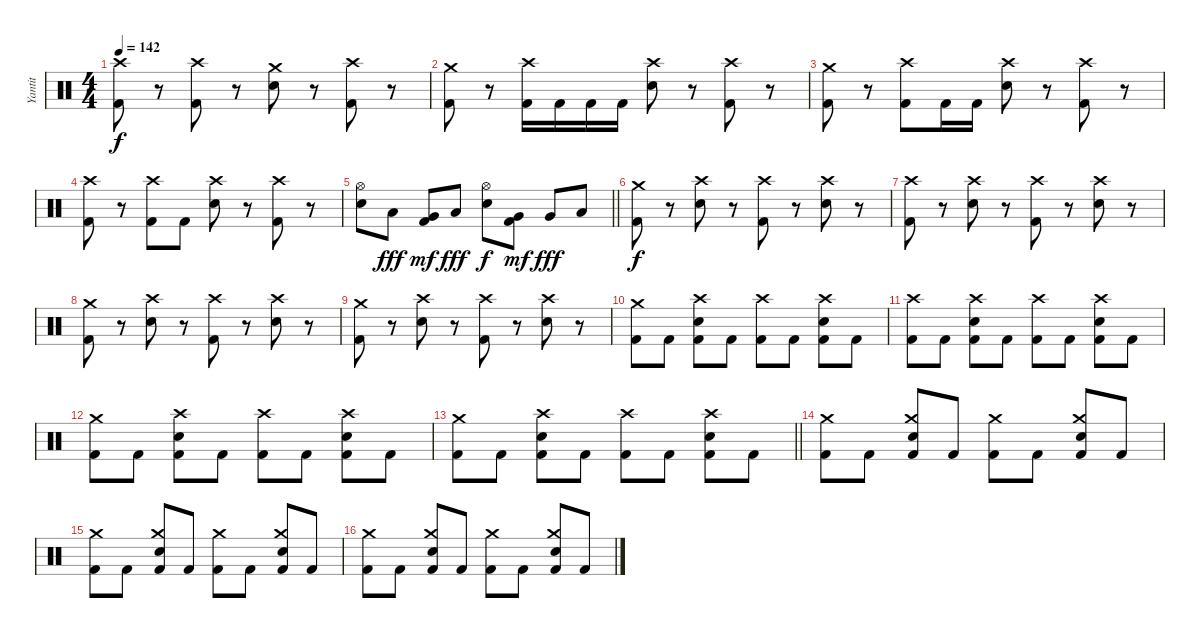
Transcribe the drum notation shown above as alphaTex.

\track ("Yantit" "Yantit") {instrument percussion}
\staff {score}
\articulation defaults
\ts (4 4)
\tempo 142
\clef neutral
\ks c
("Crash high (hit)" "Kick (hit) 2").8{dy f} r.8 ("Crash high (hit)" "Kick (hit) 2").8 r.8 ("Crash medium (hit)" "Electric Snare (hit)").8 r.8 ("Crash high (hit)" "Kick (hit) 2").8 r.8 |
("Crash medium (hit)" "Kick (hit) 2").8 r.8 ("Crash high (hit)" "Kick (hit) 2").16 "Kick (hit) 2".16 "Kick (hit) 2".16 "Kick (hit) 2".16 ("Crash high (hit)" "Electric Snare (hit)").8 r.8 ("Crash high (hit)" "Kick (hit) 2").8 r.8 |
("Crash medium (hit)" "Kick (hit) 2").8 r.8 ("Crash high (hit)" "Kick (hit) 2").8 "Kick (hit) 2".16 "Kick (hit) 2".16 ("Crash high (hit)" "Electric Snare (hit)").8 r.8 ("Crash high (hit)" "Kick (hit) 2").8 r.8 |
("Crash high (hit)" "Kick (hit) 2").8 r.8 ("Crash high (hit)" "Kick (hit) 2").8 "Kick (hit) 2".8 ("Crash high (hit)" "Electric Snare (hit)").8 r.8 ("Crash high (hit)" "Kick (hit) 2").8 r.8 |
\barLineRight lightlight
("Hi-Hat (open)" "Electric Snare (hit)").8 "Low Tom (hit)".8{dy fff} ("Very Low Tom (hit)" "Kick (hit) 2").8{dy mf} "Low Floor Tom (hit)".8{dy fff} ("Hi-Hat (open)" "Electric Snare (hit)").8{dy f} ("Very Low Tom (hit)" "Kick (hit) 2").8{dy mf} "Very Low Tom (hit)".8{dy fff} "Low Floor Tom (hit)".8 |
("Crash medium (hit)" "Kick (hit) 2").8{dy f} r.8 ("Crash high (hit)" "Electric Snare (hit)").8 r.8 ("Crash high (hit)" "Kick (hit) 2").8 r.8 ("Crash high (hit)" "Electric Snare (hit)").8 r.8 |
("Crash high (hit)" "Kick (hit) 2").8 r.8 ("Crash high (hit)" "Electric Snare (hit)").8 r.8 ("Crash high (hit)" "Kick (hit) 2").8 r.8 ("Crash high (hit)" "Electric Snare (hit)").8 r.8 |
("Crash medium (hit)" "Kick (hit) 2").8 r.8 ("Crash high (hit)" "Electric Snare (hit)").8 r.8 ("Crash high (hit)" "Kick (hit) 2").8 r.8 ("Crash high (hit)" "Electric Snare (hit)").8 r.8 |
("Crash medium (hit)" "Kick (hit) 2").8 r.8 ("Crash high (hit)" "Electric Snare (hit)").8 r.8 ("Crash high (hit)" "Kick (hit) 2").8 r.8 ("Crash high (hit)" "Electric Snare (hit)").8 r.8 |
("Crash medium (hit)" "Kick (hit) 2").8 "Kick (hit) 2".8 ("Crash high (hit)" "Electric Snare (hit)" "Kick (hit) 2").8 "Kick (hit) 2".8 ("Crash high (hit)" "Kick (hit) 2").8 "Kick (hit) 2".8 ("Crash high (hit)" "Electric Snare (hit)" "Kick (hit) 2").8 "Kick (hit) 2".8 |
("Crash high (hit)" "Kick (hit) 2").8 "Kick (hit) 2".8 ("Crash high (hit)" "Electric Snare (hit)" "Kick (hit) 2").8 "Kick (hit) 2".8 ("Crash high (hit)" "Kick (hit) 2").8 "Kick (hit) 2".8 ("Crash high (hit)" "Electric Snare (hit)" "Kick (hit) 2").8 "Kick (hit) 2".8 |
("Crash medium (hit)" "Kick (hit) 2").8 "Kick (hit) 2".8 ("Crash high (hit)" "Electric Snare (hit)" "Kick (hit) 2").8 "Kick (hit) 2".8 ("Crash high (hit)" "Kick (hit) 2").8 "Kick (hit) 2".8 ("Crash high (hit)" "Electric Snare (hit)" "Kick (hit) 2").8 "Kick (hit) 2".8 |
\barLineRight lightlight
("Crash medium (hit)" "Kick (hit) 2").8 "Kick (hit) 2".8 ("Crash high (hit)" "Electric Snare (hit)" "Kick (hit) 2").8 "Kick (hit) 2".8 ("Crash high (hit)" "Kick (hit) 2").8 "Kick (hit) 2".8 ("Crash high (hit)" "Electric Snare (hit)" "Kick (hit) 2").8 "Kick (hit) 2".8 |
("Crash medium (hit)" "Kick (hit) 2").8 "Kick (hit) 2".8 ("Crash medium (hit)" "Electric Snare (hit)" "Kick (hit) 2").8 "Kick (hit) 2".8 ("Crash medium (hit)" "Kick (hit) 2").8 "Kick (hit) 2".8 ("Crash medium (hit)" "Electric Snare (hit)" "Kick (hit) 2").8 "Kick (hit) 2".8 |
("Crash medium (hit)" "Kick (hit) 2").8 "Kick (hit) 2".8 ("Crash medium (hit)" "Electric Snare (hit)" "Kick (hit) 2").8 "Kick (hit) 2".8 ("Crash medium (hit)" "Kick (hit) 2").8 "Kick (hit) 2".8 ("Crash medium (hit)" "Electric Snare (hit)" "Kick (hit) 2").8 "Kick (hit) 2".8 |
("Crash medium (hit)" "Kick (hit) 2").8 "Kick (hit) 2".8 ("Crash medium (hit)" "Electric Snare (hit)" "Kick (hit) 2").8 "Kick (hit) 2".8 ("Crash medium (hit)" "Kick (hit) 2").8 "Kick (hit) 2".8 ("Crash medium (hit)" "Electric Snare (hit)" "Kick (hit) 2").8 "Kick (hit) 2".8
